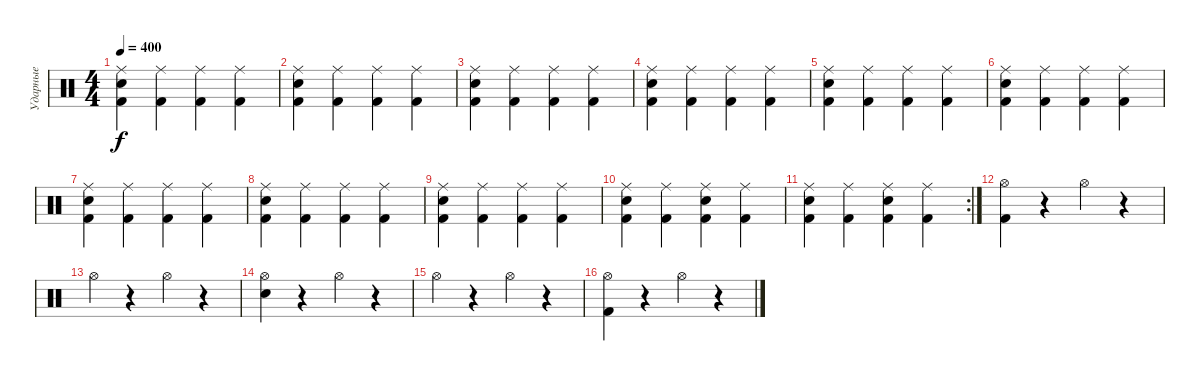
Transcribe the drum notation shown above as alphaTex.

\track ("Ударные" "Ударные") {instrument percussion}
\staff {score}
\articulation defaults
\ts (4 4)
\tempo 400
\clef neutral
\ks c
("Kick (hit) 2" "Electric Snare (hit)" "Ride (middle)").4{dy f} ("Kick (hit) 2" "Ride (middle)").4 ("Kick (hit) 2" "Ride (middle)").4 ("Kick (hit) 2" "Ride (middle)").4 |
("Kick (hit) 2" "Electric Snare (hit)" "Ride (middle)").4 ("Kick (hit) 2" "Ride (middle)").4 ("Kick (hit) 2" "Ride (middle)").4 ("Kick (hit) 2" "Ride (middle)").4 |
("Kick (hit) 2" "Electric Snare (hit)" "Ride (middle)").4 ("Kick (hit) 2" "Ride (middle)").4 ("Kick (hit) 2" "Ride (middle)").4 ("Kick (hit) 2" "Ride (middle)").4 |
("Kick (hit) 2" "Electric Snare (hit)" "Ride (middle)").4 ("Kick (hit) 2" "Ride (middle)").4 ("Kick (hit) 2" "Ride (middle)").4 ("Kick (hit) 2" "Ride (middle)").4 |
("Kick (hit) 2" "Electric Snare (hit)" "Ride (middle)").4 ("Kick (hit) 2" "Ride (middle)").4 ("Kick (hit) 2" "Ride (middle)").4 ("Kick (hit) 2" "Ride (middle)").4 |
("Kick (hit) 2" "Electric Snare (hit)" "Ride (middle)").4 ("Kick (hit) 2" "Ride (middle)").4 ("Kick (hit) 2" "Ride (middle)").4 ("Kick (hit) 2" "Ride (middle)").4 |
("Kick (hit) 2" "Electric Snare (hit)" "Ride (middle)").4 ("Kick (hit) 2" "Ride (middle)").4 ("Kick (hit) 2" "Ride (middle)").4 ("Kick (hit) 2" "Ride (middle)").4 |
("Kick (hit) 2" "Electric Snare (hit)" "Ride (middle)").4 ("Kick (hit) 2" "Ride (middle)").4 ("Kick (hit) 2" "Ride (middle)").4 ("Kick (hit) 2" "Ride (middle)").4 |
("Kick (hit) 2" "Electric Snare (hit)" "Ride (middle)").4 ("Kick (hit) 2" "Ride (middle)").4 ("Kick (hit) 2" "Ride (middle)").4 ("Kick (hit) 2" "Ride (middle)").4 |
("Kick (hit) 2" "Electric Snare (hit)" "Ride (middle)").4 ("Kick (hit) 2" "Ride (middle)").4 ("Kick (hit) 2" "Ride (middle)" "Electric Snare (hit)").4 ("Kick (hit) 2" "Ride (middle)").4 |
\rc 2
("Kick (hit) 2" "Electric Snare (hit)" "Ride (middle)").4 ("Kick (hit) 2" "Ride (middle)").4 ("Kick (hit) 2" "Ride (middle)" "Electric Snare (hit)").4 ("Kick (hit) 2" "Ride (middle)").4 |
("Hi-Hat (open)" "Kick (hit) 2").4 r.4 "Hi-Hat (open)".4 r.4 |
"Hi-Hat (open)".4 r.4 "Hi-Hat (open)".4 r.4 |
("Electric Snare (hit)" "Hi-Hat (open)").4 r.4 "Hi-Hat (open)".4 r.4 |
"Hi-Hat (open)".4 r.4 "Hi-Hat (open)".4 r.4 |
("Hi-Hat (open)" "Kick (hit) 2").4 r.4 "Hi-Hat (open)".4 r.4
